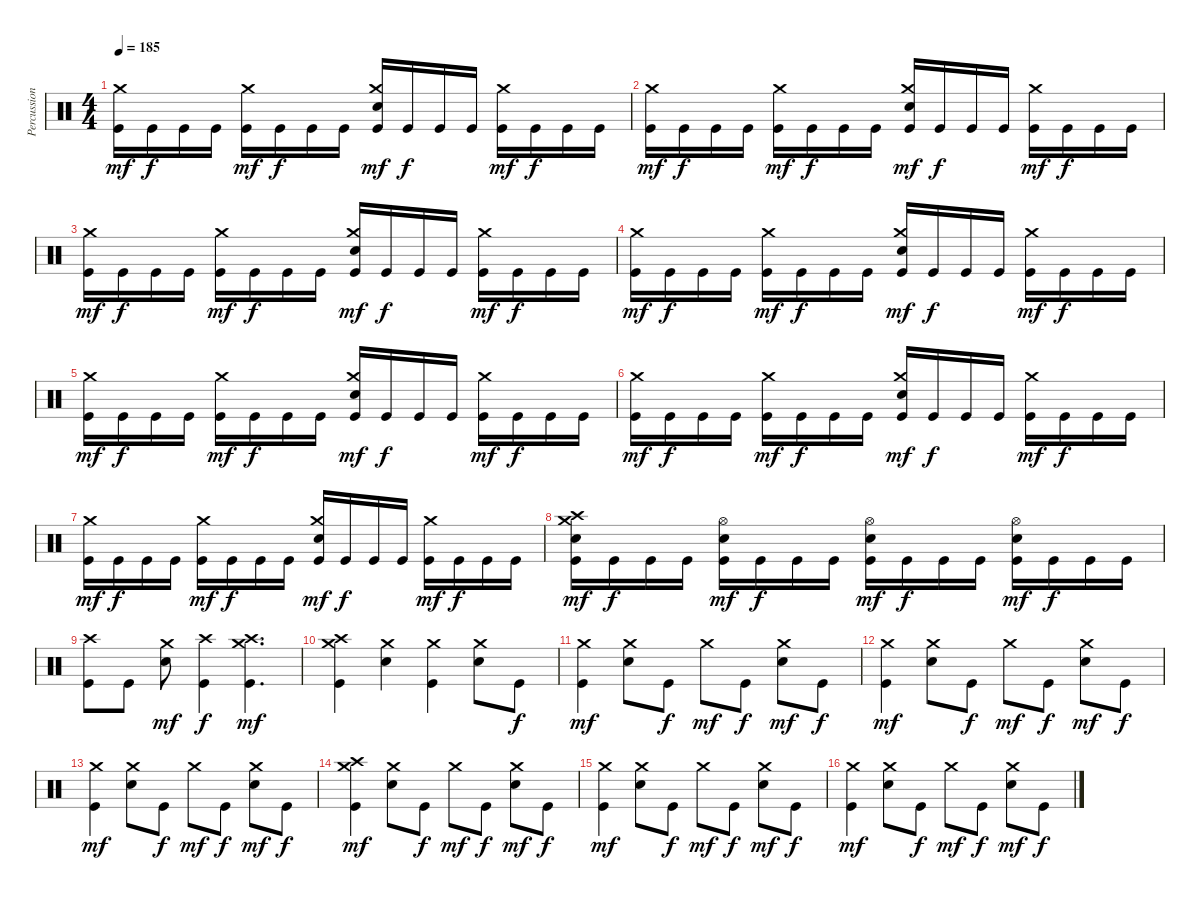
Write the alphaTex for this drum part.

\track ("Percussions" "Percussion") {instrument percussion}
\staff {score}
\articulation defaults
\ts (4 4)
\tempo 185
\clef neutral
\ks c
("Kick (hit)" "Crash medium (hit)").16{dy mf} "Kick (hit)".16{dy f} "Kick (hit)".16 "Kick (hit)".16 ("Kick (hit)" "Crash medium (hit)").16{dy mf} "Kick (hit)".16{dy f} "Kick (hit)".16 "Kick (hit)".16 ("Kick (hit)" "Electric Snare (hit)" "Crash medium (hit)").16{dy mf} "Kick (hit)".16{dy f} "Kick (hit)".16 "Kick (hit)".16 ("Kick (hit)" "Crash medium (hit)").16{dy mf} "Kick (hit)".16{dy f} "Kick (hit)".16 "Kick (hit)".16 |
("Kick (hit)" "Crash medium (hit)").16{dy mf} "Kick (hit)".16{dy f} "Kick (hit)".16 "Kick (hit)".16 ("Kick (hit)" "Crash medium (hit)").16{dy mf} "Kick (hit)".16{dy f} "Kick (hit)".16 "Kick (hit)".16 ("Kick (hit)" "Electric Snare (hit)" "Crash medium (hit)").16{dy mf} "Kick (hit)".16{dy f} "Kick (hit)".16 "Kick (hit)".16 ("Kick (hit)" "Crash medium (hit)").16{dy mf} "Kick (hit)".16{dy f} "Kick (hit)".16 "Kick (hit)".16 |
("Kick (hit)" "Crash medium (hit)").16{dy mf} "Kick (hit)".16{dy f} "Kick (hit)".16 "Kick (hit)".16 ("Kick (hit)" "Crash medium (hit)").16{dy mf} "Kick (hit)".16{dy f} "Kick (hit)".16 "Kick (hit)".16 ("Kick (hit)" "Electric Snare (hit)" "Crash medium (hit)").16{dy mf} "Kick (hit)".16{dy f} "Kick (hit)".16 "Kick (hit)".16 ("Kick (hit)" "Crash medium (hit)").16{dy mf} "Kick (hit)".16{dy f} "Kick (hit)".16 "Kick (hit)".16 |
("Kick (hit)" "Crash medium (hit)").16{dy mf} "Kick (hit)".16{dy f} "Kick (hit)".16 "Kick (hit)".16 ("Kick (hit)" "Crash medium (hit)").16{dy mf} "Kick (hit)".16{dy f} "Kick (hit)".16 "Kick (hit)".16 ("Kick (hit)" "Electric Snare (hit)" "Crash medium (hit)").16{dy mf} "Kick (hit)".16{dy f} "Kick (hit)".16 "Kick (hit)".16 ("Kick (hit)" "Crash medium (hit)").16{dy mf} "Kick (hit)".16{dy f} "Kick (hit)".16 "Kick (hit)".16 |
("Kick (hit)" "Crash medium (hit)").16{dy mf} "Kick (hit)".16{dy f} "Kick (hit)".16 "Kick (hit)".16 ("Kick (hit)" "Crash medium (hit)").16{dy mf} "Kick (hit)".16{dy f} "Kick (hit)".16 "Kick (hit)".16 ("Kick (hit)" "Electric Snare (hit)" "Crash medium (hit)").16{dy mf} "Kick (hit)".16{dy f} "Kick (hit)".16 "Kick (hit)".16 ("Kick (hit)" "Crash medium (hit)").16{dy mf} "Kick (hit)".16{dy f} "Kick (hit)".16 "Kick (hit)".16 |
("Kick (hit)" "Crash medium (hit)").16{dy mf} "Kick (hit)".16{dy f} "Kick (hit)".16 "Kick (hit)".16 ("Kick (hit)" "Crash medium (hit)").16{dy mf} "Kick (hit)".16{dy f} "Kick (hit)".16 "Kick (hit)".16 ("Kick (hit)" "Electric Snare (hit)" "Crash medium (hit)").16{dy mf} "Kick (hit)".16{dy f} "Kick (hit)".16 "Kick (hit)".16 ("Kick (hit)" "Crash medium (hit)").16{dy mf} "Kick (hit)".16{dy f} "Kick (hit)".16 "Kick (hit)".16 |
("Kick (hit)" "Crash medium (hit)").16{dy mf} "Kick (hit)".16{dy f} "Kick (hit)".16 "Kick (hit)".16 ("Kick (hit)" "Crash medium (hit)").16{dy mf} "Kick (hit)".16{dy f} "Kick (hit)".16 "Kick (hit)".16 ("Kick (hit)" "Electric Snare (hit)" "Crash medium (hit)").16{dy mf} "Kick (hit)".16{dy f} "Kick (hit)".16 "Kick (hit)".16 ("Kick (hit)" "Crash medium (hit)").16{dy mf} "Kick (hit)".16{dy f} "Kick (hit)".16 "Kick (hit)".16 |
("Kick (hit)" "Electric Snare (hit)" "Crash medium (hit)" "Crash high (hit)").16{dy mf} "Kick (hit)".16{dy f} "Kick (hit)".16 "Kick (hit)".16 ("Kick (hit)" "Electric Snare (hit)" "Hi-Hat (open)").16{dy mf} "Kick (hit)".16{dy f} "Kick (hit)".16 "Kick (hit)".16 ("Kick (hit)" "Electric Snare (hit)" "Hi-Hat (open)").16{dy mf} "Kick (hit)".16{dy f} "Kick (hit)".16 "Kick (hit)".16 ("Kick (hit)" "Electric Snare (hit)" "Hi-Hat (open)").16{dy mf} "Kick (hit)".16{dy f} "Kick (hit)".16 "Kick (hit)".16 |
("Kick (hit)" "Crash high (hit)").8 "Kick (hit)".8 ("Electric Snare (hit)" "Crash medium (hit)").8{dy mf} ("Kick (hit)" "Crash high (hit)").4{dy f} ("Kick (hit)" "Crash high (hit)" "Crash medium (hit)").4{d dy mf} |
("Kick (hit)" "Crash medium (hit)" "Crash high (hit)").4 ("Electric Snare (hit)" "Crash medium (hit)").4 ("Kick (hit)" "Crash medium (hit)").4 ("Electric Snare (hit)" "Crash medium (hit)").8 "Kick (hit)".8{dy f} |
("Kick (hit)" "Crash medium (hit)").4{dy mf} ("Electric Snare (hit)" "Crash medium (hit)").8 "Kick (hit)".8{dy f} "Crash medium (hit)".8{dy mf} "Kick (hit)".8{dy f} ("Electric Snare (hit)" "Crash medium (hit)").8{dy mf} "Kick (hit)".8{dy f} |
("Kick (hit)" "Crash medium (hit)").4{dy mf} ("Electric Snare (hit)" "Crash medium (hit)").8 "Kick (hit)".8{dy f} "Crash medium (hit)".8{dy mf} "Kick (hit)".8{dy f} ("Electric Snare (hit)" "Crash medium (hit)").8{dy mf} "Kick (hit)".8{dy f} |
("Kick (hit)" "Crash medium (hit)").4{dy mf} ("Electric Snare (hit)" "Crash medium (hit)").8 "Kick (hit)".8{dy f} "Crash medium (hit)".8{dy mf} "Kick (hit)".8{dy f} ("Electric Snare (hit)" "Crash medium (hit)").8{dy mf} "Kick (hit)".8{dy f} |
("Kick (hit)" "Crash medium (hit)" "Crash high (hit)").4{dy mf} ("Electric Snare (hit)" "Crash medium (hit)").8 "Kick (hit)".8{dy f} "Crash medium (hit)".8{dy mf} "Kick (hit)".8{dy f} ("Electric Snare (hit)" "Crash medium (hit)").8{dy mf} "Kick (hit)".8{dy f} |
("Kick (hit)" "Crash medium (hit)").4{dy mf} ("Electric Snare (hit)" "Crash medium (hit)").8 "Kick (hit)".8{dy f} "Crash medium (hit)".8{dy mf} "Kick (hit)".8{dy f} ("Electric Snare (hit)" "Crash medium (hit)").8{dy mf} "Kick (hit)".8{dy f} |
("Kick (hit)" "Crash medium (hit)").4{dy mf} ("Electric Snare (hit)" "Crash medium (hit)").8 "Kick (hit)".8{dy f} "Crash medium (hit)".8{dy mf} "Kick (hit)".8{dy f} ("Electric Snare (hit)" "Crash medium (hit)").8{dy mf} "Kick (hit)".8{dy f}
